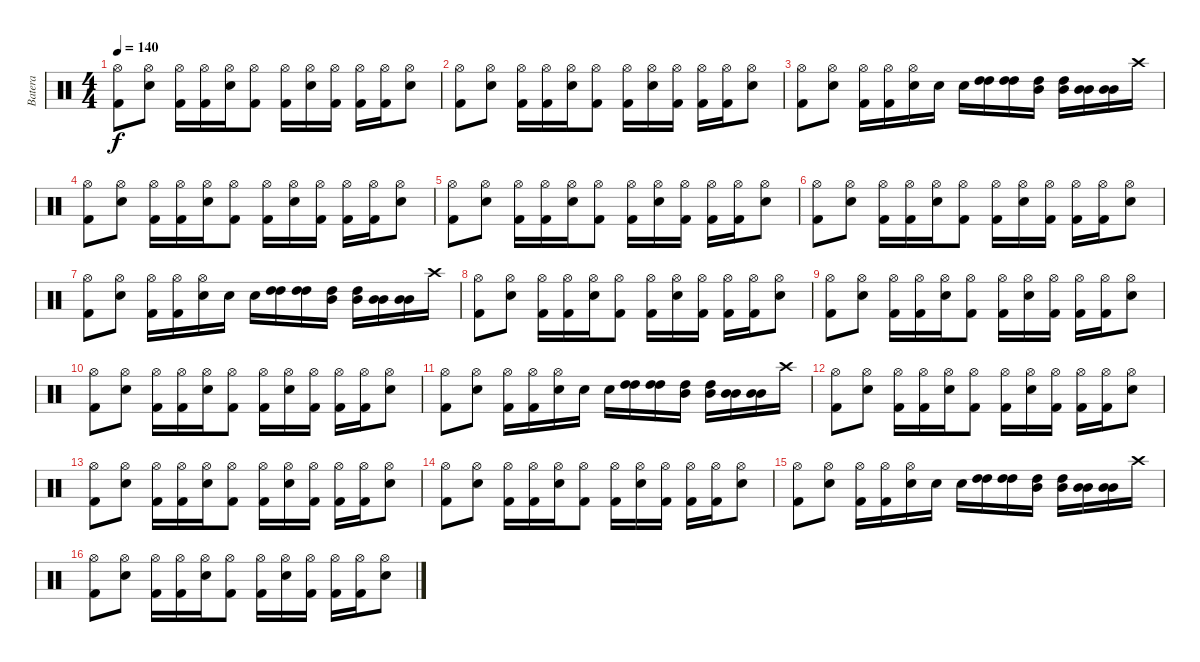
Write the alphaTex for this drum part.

\track ("Batera" "Batera") {instrument percussion}
\staff {score}
\articulation defaults
\ts (4 4)
\tempo 140
\clef neutral
\ks c
("Kick (hit) 2" "Hi-Hat (open)").8{dy f} ("Electric Snare (hit)" "Hi-Hat (open)").8 ("Kick (hit) 2" "Hi-Hat (open)").16 ("Kick (hit) 2" "Hi-Hat (open)").16 ("Electric Snare (hit)" "Hi-Hat (open)").16 ("Kick (hit) 2" "Hi-Hat (open)").8 ("Kick (hit) 2" "Hi-Hat (open)").16 ("Electric Snare (hit)" "Hi-Hat (open)").16 ("Kick (hit) 2" "Hi-Hat (open)").16 ("Kick (hit) 2" "Hi-Hat (open)").16 ("Kick (hit) 2" "Hi-Hat (open)").16 ("Electric Snare (hit)" "Hi-Hat (open)").8 |
("Kick (hit) 2" "Hi-Hat (open)").8 ("Electric Snare (hit)" "Hi-Hat (open)").8 ("Kick (hit) 2" "Hi-Hat (open)").16 ("Kick (hit) 2" "Hi-Hat (open)").16 ("Electric Snare (hit)" "Hi-Hat (open)").16 ("Kick (hit) 2" "Hi-Hat (open)").8 ("Kick (hit) 2" "Hi-Hat (open)").16 ("Electric Snare (hit)" "Hi-Hat (open)").16 ("Kick (hit) 2" "Hi-Hat (open)").16 ("Kick (hit) 2" "Hi-Hat (open)").16 ("Kick (hit) 2" "Hi-Hat (open)").16 ("Electric Snare (hit)" "Hi-Hat (open)").8 |
("Kick (hit) 2" "Hi-Hat (open)").8 ("Electric Snare (hit)" "Hi-Hat (open)").8 ("Kick (hit) 2" "Hi-Hat (open)").16 ("Kick (hit) 2" "Hi-Hat (open)").16 ("Electric Snare (hit)" "Hi-Hat (open)").16 "Electric Snare (hit)".16 "Electric Snare (hit)".16 ("High Tom (hit)" "High Tom (hit)").16 ("High Tom (hit)" "High Tom (hit)").16 ("Mid Tom (hit)" "High Tom (hit)").16 ("Mid Tom (hit)" "High Tom (hit)").16 ("Mid Tom (hit)" "Mid Tom (hit)").16 ("Mid Tom (hit)" "Mid Tom (hit)").16 "Crash high (hit)".16 |
("Kick (hit) 2" "Hi-Hat (open)").8 ("Electric Snare (hit)" "Hi-Hat (open)").8 ("Kick (hit) 2" "Hi-Hat (open)").16 ("Kick (hit) 2" "Hi-Hat (open)").16 ("Electric Snare (hit)" "Hi-Hat (open)").16 ("Kick (hit) 2" "Hi-Hat (open)").8 ("Kick (hit) 2" "Hi-Hat (open)").16 ("Electric Snare (hit)" "Hi-Hat (open)").16 ("Kick (hit) 2" "Hi-Hat (open)").16 ("Kick (hit) 2" "Hi-Hat (open)").16 ("Kick (hit) 2" "Hi-Hat (open)").16 ("Electric Snare (hit)" "Hi-Hat (open)").8 |
("Kick (hit) 2" "Hi-Hat (open)").8 ("Electric Snare (hit)" "Hi-Hat (open)").8 ("Kick (hit) 2" "Hi-Hat (open)").16 ("Kick (hit) 2" "Hi-Hat (open)").16 ("Electric Snare (hit)" "Hi-Hat (open)").16 ("Kick (hit) 2" "Hi-Hat (open)").8 ("Kick (hit) 2" "Hi-Hat (open)").16 ("Electric Snare (hit)" "Hi-Hat (open)").16 ("Kick (hit) 2" "Hi-Hat (open)").16 ("Kick (hit) 2" "Hi-Hat (open)").16 ("Kick (hit) 2" "Hi-Hat (open)").16 ("Electric Snare (hit)" "Hi-Hat (open)").8 |
("Kick (hit) 2" "Hi-Hat (open)").8 ("Electric Snare (hit)" "Hi-Hat (open)").8 ("Kick (hit) 2" "Hi-Hat (open)").16 ("Kick (hit) 2" "Hi-Hat (open)").16 ("Electric Snare (hit)" "Hi-Hat (open)").16 ("Kick (hit) 2" "Hi-Hat (open)").8 ("Kick (hit) 2" "Hi-Hat (open)").16 ("Electric Snare (hit)" "Hi-Hat (open)").16 ("Kick (hit) 2" "Hi-Hat (open)").16 ("Kick (hit) 2" "Hi-Hat (open)").16 ("Kick (hit) 2" "Hi-Hat (open)").16 ("Electric Snare (hit)" "Hi-Hat (open)").8 |
("Kick (hit) 2" "Hi-Hat (open)").8 ("Electric Snare (hit)" "Hi-Hat (open)").8 ("Kick (hit) 2" "Hi-Hat (open)").16 ("Kick (hit) 2" "Hi-Hat (open)").16 ("Electric Snare (hit)" "Hi-Hat (open)").16 "Electric Snare (hit)".16 "Electric Snare (hit)".16 ("High Tom (hit)" "High Tom (hit)").16 ("High Tom (hit)" "High Tom (hit)").16 ("Mid Tom (hit)" "High Tom (hit)").16 ("Mid Tom (hit)" "High Tom (hit)").16 ("Mid Tom (hit)" "Mid Tom (hit)").16 ("Mid Tom (hit)" "Mid Tom (hit)").16 "Crash high (hit)".16 |
("Kick (hit) 2" "Hi-Hat (open)").8 ("Electric Snare (hit)" "Hi-Hat (open)").8 ("Kick (hit) 2" "Hi-Hat (open)").16 ("Kick (hit) 2" "Hi-Hat (open)").16 ("Electric Snare (hit)" "Hi-Hat (open)").16 ("Kick (hit) 2" "Hi-Hat (open)").8 ("Kick (hit) 2" "Hi-Hat (open)").16 ("Electric Snare (hit)" "Hi-Hat (open)").16 ("Kick (hit) 2" "Hi-Hat (open)").16 ("Kick (hit) 2" "Hi-Hat (open)").16 ("Kick (hit) 2" "Hi-Hat (open)").16 ("Electric Snare (hit)" "Hi-Hat (open)").8 |
("Kick (hit) 2" "Hi-Hat (open)").8 ("Electric Snare (hit)" "Hi-Hat (open)").8 ("Kick (hit) 2" "Hi-Hat (open)").16 ("Kick (hit) 2" "Hi-Hat (open)").16 ("Electric Snare (hit)" "Hi-Hat (open)").16 ("Kick (hit) 2" "Hi-Hat (open)").8 ("Kick (hit) 2" "Hi-Hat (open)").16 ("Electric Snare (hit)" "Hi-Hat (open)").16 ("Kick (hit) 2" "Hi-Hat (open)").16 ("Kick (hit) 2" "Hi-Hat (open)").16 ("Kick (hit) 2" "Hi-Hat (open)").16 ("Electric Snare (hit)" "Hi-Hat (open)").8 |
("Kick (hit) 2" "Hi-Hat (open)").8 ("Electric Snare (hit)" "Hi-Hat (open)").8 ("Kick (hit) 2" "Hi-Hat (open)").16 ("Kick (hit) 2" "Hi-Hat (open)").16 ("Electric Snare (hit)" "Hi-Hat (open)").16 ("Kick (hit) 2" "Hi-Hat (open)").8 ("Kick (hit) 2" "Hi-Hat (open)").16 ("Electric Snare (hit)" "Hi-Hat (open)").16 ("Kick (hit) 2" "Hi-Hat (open)").16 ("Kick (hit) 2" "Hi-Hat (open)").16 ("Kick (hit) 2" "Hi-Hat (open)").16 ("Electric Snare (hit)" "Hi-Hat (open)").8 |
("Kick (hit) 2" "Hi-Hat (open)").8 ("Electric Snare (hit)" "Hi-Hat (open)").8 ("Kick (hit) 2" "Hi-Hat (open)").16 ("Kick (hit) 2" "Hi-Hat (open)").16 ("Electric Snare (hit)" "Hi-Hat (open)").16 "Electric Snare (hit)".16 "Electric Snare (hit)".16 ("High Tom (hit)" "High Tom (hit)").16 ("High Tom (hit)" "High Tom (hit)").16 ("Mid Tom (hit)" "High Tom (hit)").16 ("Mid Tom (hit)" "High Tom (hit)").16 ("Mid Tom (hit)" "Mid Tom (hit)").16 ("Mid Tom (hit)" "Mid Tom (hit)").16 "Crash high (hit)".16 |
("Kick (hit) 2" "Hi-Hat (open)").8 ("Electric Snare (hit)" "Hi-Hat (open)").8 ("Kick (hit) 2" "Hi-Hat (open)").16 ("Kick (hit) 2" "Hi-Hat (open)").16 ("Electric Snare (hit)" "Hi-Hat (open)").16 ("Kick (hit) 2" "Hi-Hat (open)").8 ("Kick (hit) 2" "Hi-Hat (open)").16 ("Electric Snare (hit)" "Hi-Hat (open)").16 ("Kick (hit) 2" "Hi-Hat (open)").16 ("Kick (hit) 2" "Hi-Hat (open)").16 ("Kick (hit) 2" "Hi-Hat (open)").16 ("Electric Snare (hit)" "Hi-Hat (open)").8 |
("Kick (hit) 2" "Hi-Hat (open)").8 ("Electric Snare (hit)" "Hi-Hat (open)").8 ("Kick (hit) 2" "Hi-Hat (open)").16 ("Kick (hit) 2" "Hi-Hat (open)").16 ("Electric Snare (hit)" "Hi-Hat (open)").16 ("Kick (hit) 2" "Hi-Hat (open)").8 ("Kick (hit) 2" "Hi-Hat (open)").16 ("Electric Snare (hit)" "Hi-Hat (open)").16 ("Kick (hit) 2" "Hi-Hat (open)").16 ("Kick (hit) 2" "Hi-Hat (open)").16 ("Kick (hit) 2" "Hi-Hat (open)").16 ("Electric Snare (hit)" "Hi-Hat (open)").8 |
("Kick (hit) 2" "Hi-Hat (open)").8 ("Electric Snare (hit)" "Hi-Hat (open)").8 ("Kick (hit) 2" "Hi-Hat (open)").16 ("Kick (hit) 2" "Hi-Hat (open)").16 ("Electric Snare (hit)" "Hi-Hat (open)").16 ("Kick (hit) 2" "Hi-Hat (open)").8 ("Kick (hit) 2" "Hi-Hat (open)").16 ("Electric Snare (hit)" "Hi-Hat (open)").16 ("Kick (hit) 2" "Hi-Hat (open)").16 ("Kick (hit) 2" "Hi-Hat (open)").16 ("Kick (hit) 2" "Hi-Hat (open)").16 ("Electric Snare (hit)" "Hi-Hat (open)").8 |
("Kick (hit) 2" "Hi-Hat (open)").8 ("Electric Snare (hit)" "Hi-Hat (open)").8 ("Kick (hit) 2" "Hi-Hat (open)").16 ("Kick (hit) 2" "Hi-Hat (open)").16 ("Electric Snare (hit)" "Hi-Hat (open)").16 "Electric Snare (hit)".16 "Electric Snare (hit)".16 ("High Tom (hit)" "High Tom (hit)").16 ("High Tom (hit)" "High Tom (hit)").16 ("Mid Tom (hit)" "High Tom (hit)").16 ("Mid Tom (hit)" "High Tom (hit)").16 ("Mid Tom (hit)" "Mid Tom (hit)").16 ("Mid Tom (hit)" "Mid Tom (hit)").16 "Crash high (hit)".16 |
("Kick (hit) 2" "Hi-Hat (open)").8 ("Electric Snare (hit)" "Hi-Hat (open)").8 ("Kick (hit) 2" "Hi-Hat (open)").16 ("Kick (hit) 2" "Hi-Hat (open)").16 ("Electric Snare (hit)" "Hi-Hat (open)").16 ("Kick (hit) 2" "Hi-Hat (open)").8 ("Kick (hit) 2" "Hi-Hat (open)").16 ("Electric Snare (hit)" "Hi-Hat (open)").16 ("Kick (hit) 2" "Hi-Hat (open)").16 ("Kick (hit) 2" "Hi-Hat (open)").16 ("Kick (hit) 2" "Hi-Hat (open)").16 ("Electric Snare (hit)" "Hi-Hat (open)").8
